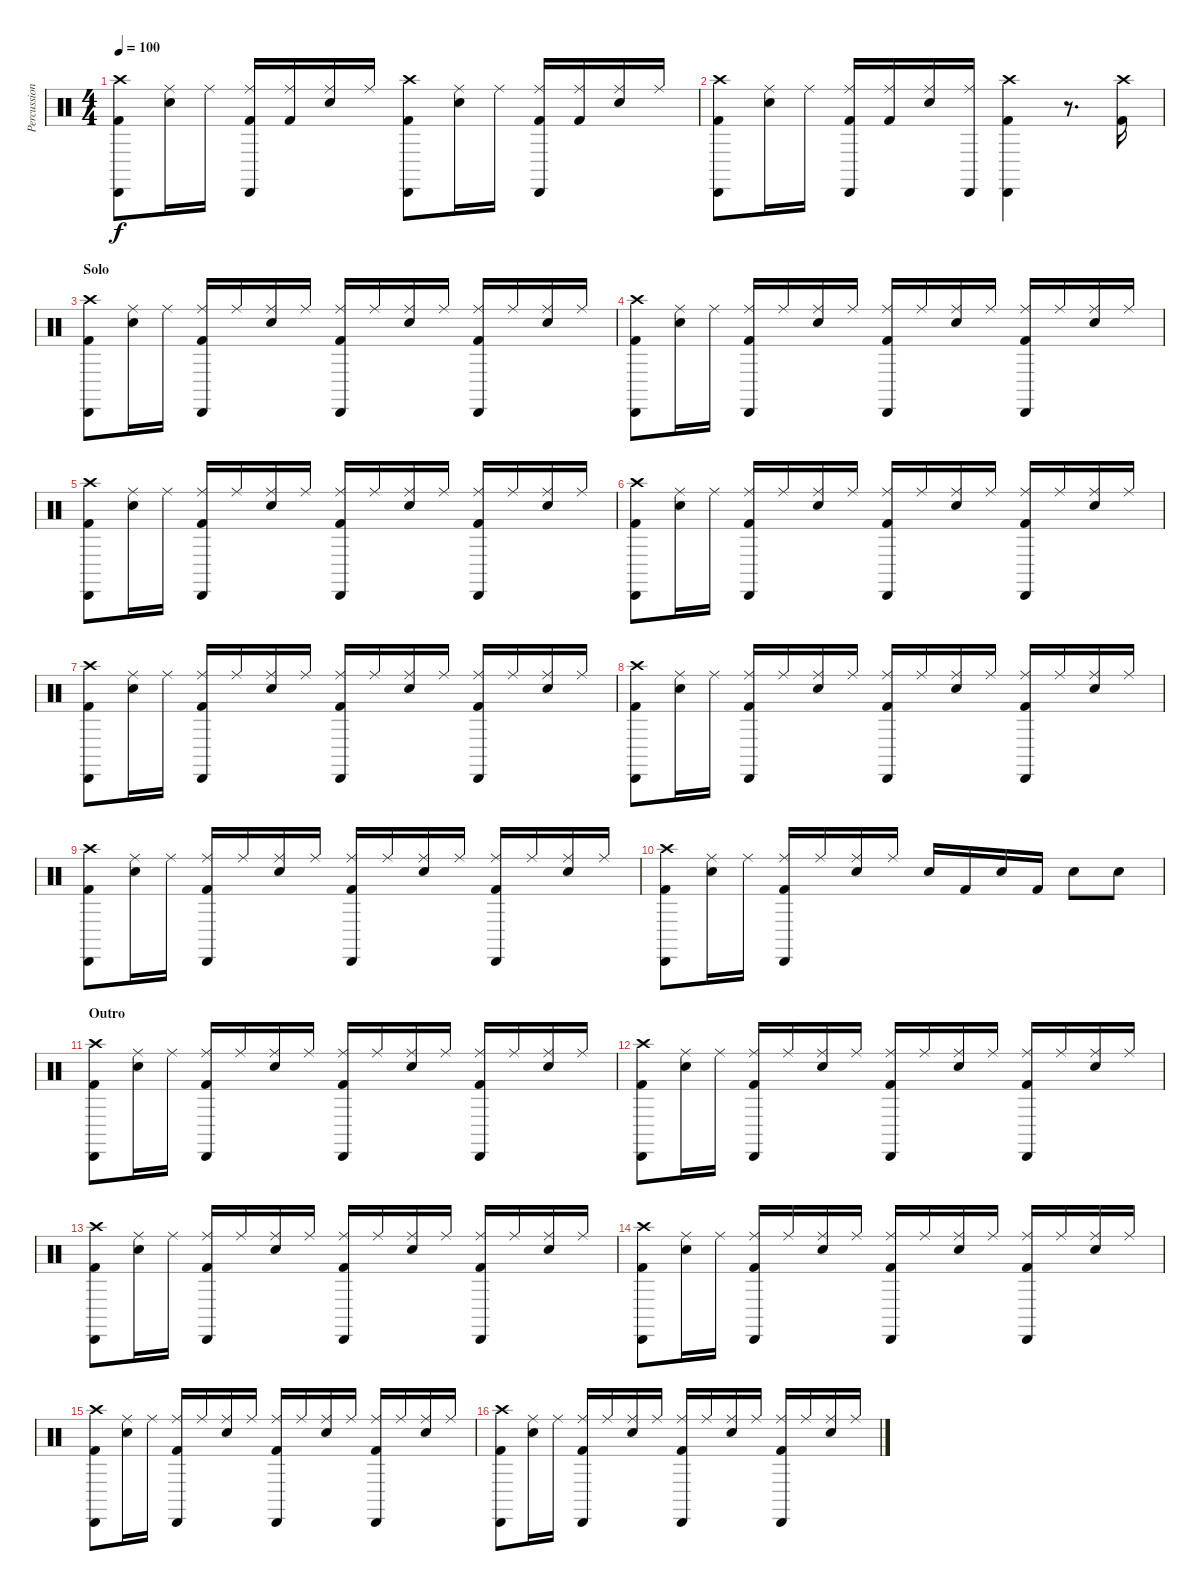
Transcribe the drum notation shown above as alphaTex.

\track ("Percussion" "Percussion") {instrument percussion}
\staff {score}
\articulation defaults
\ts (4 4)
\tempo 100
\clef neutral
\ks c
("Crash high (hit)" "Cabasa (hit)" "Kick (hit) 2").8{dy f} ("Ride (middle)" "Snare (hit) 2").16 "Ride (middle)".16 ("Ride (middle)" "Cabasa (hit)" "Kick (hit) 2").16 ("Ride (middle)" "Kick (hit) 2").16 ("Ride (middle)" "Snare (hit) 2").16 "Ride (middle)".16 ("Crash high (hit)" "Cabasa (hit)" "Kick (hit) 2").8 ("Ride (middle)" "Snare (hit) 2").16 "Ride (middle)".16 ("Ride (middle)" "Cabasa (hit)" "Kick (hit) 2").16 ("Ride (middle)" "Kick (hit) 2").16 ("Ride (middle)" "Snare (hit) 2").16 "Ride (middle)".16 |
("Crash high (hit)" "Cabasa (hit)" "Kick (hit) 2").8 ("Ride (middle)" "Snare (hit) 2").16 "Ride (middle)".16 ("Ride (middle)" "Cabasa (hit)" "Kick (hit) 2").16 ("Ride (middle)" "Kick (hit) 2").16 ("Ride (middle)" "Snare (hit) 2").16 ("Ride (middle)" "Cabasa (hit)").16 ("Crash high (hit)" "Cabasa (hit)" "Kick (hit) 2").4 r.8{d} ("Crash high (hit)" "Kick (hit) 2").16 |
\section ("" "Solo")
("Crash high (hit)" "Cabasa (hit)" "Kick (hit) 2").8 ("Ride (middle)" "Snare (hit) 2").16 "Ride (middle)".16 ("Ride (middle)" "Cabasa (hit)" "Kick (hit) 2").16 "Ride (middle)".16 ("Ride (middle)" "Snare (hit) 2").16 "Ride (middle)".16 ("Ride (middle)" "Cabasa (hit)" "Kick (hit) 2").16 "Ride (middle)".16 ("Ride (middle)" "Snare (hit) 2").16 "Ride (middle)".16 ("Ride (middle)" "Cabasa (hit)" "Kick (hit) 2").16 "Ride (middle)".16 ("Ride (middle)" "Snare (hit) 2").16 "Ride (middle)".16 |
("Crash high (hit)" "Cabasa (hit)" "Kick (hit) 2").8 ("Ride (middle)" "Snare (hit) 2").16 "Ride (middle)".16 ("Ride (middle)" "Cabasa (hit)" "Kick (hit) 2").16 "Ride (middle)".16 ("Ride (middle)" "Snare (hit) 2").16 "Ride (middle)".16 ("Ride (middle)" "Cabasa (hit)" "Kick (hit) 2").16 "Ride (middle)".16 ("Ride (middle)" "Snare (hit) 2").16 "Ride (middle)".16 ("Ride (middle)" "Cabasa (hit)" "Kick (hit) 2").16 "Ride (middle)".16 ("Ride (middle)" "Snare (hit) 2").16 "Ride (middle)".16 |
("Crash high (hit)" "Cabasa (hit)" "Kick (hit) 2").8 ("Ride (middle)" "Snare (hit) 2").16 "Ride (middle)".16 ("Ride (middle)" "Cabasa (hit)" "Kick (hit) 2").16 "Ride (middle)".16 ("Ride (middle)" "Snare (hit) 2").16 "Ride (middle)".16 ("Ride (middle)" "Cabasa (hit)" "Kick (hit) 2").16 "Ride (middle)".16 ("Ride (middle)" "Snare (hit) 2").16 "Ride (middle)".16 ("Ride (middle)" "Cabasa (hit)" "Kick (hit) 2").16 "Ride (middle)".16 ("Ride (middle)" "Snare (hit) 2").16 "Ride (middle)".16 |
("Crash high (hit)" "Cabasa (hit)" "Kick (hit) 2").8 ("Ride (middle)" "Snare (hit) 2").16 "Ride (middle)".16 ("Ride (middle)" "Cabasa (hit)" "Kick (hit) 2").16 "Ride (middle)".16 ("Ride (middle)" "Snare (hit) 2").16 "Ride (middle)".16 ("Ride (middle)" "Cabasa (hit)" "Kick (hit) 2").16 "Ride (middle)".16 ("Ride (middle)" "Snare (hit) 2").16 "Ride (middle)".16 ("Ride (middle)" "Cabasa (hit)" "Kick (hit) 2").16 "Ride (middle)".16 ("Ride (middle)" "Snare (hit) 2").16 "Ride (middle)".16 |
("Crash high (hit)" "Cabasa (hit)" "Kick (hit) 2").8 ("Ride (middle)" "Snare (hit) 2").16 "Ride (middle)".16 ("Ride (middle)" "Cabasa (hit)" "Kick (hit) 2").16 "Ride (middle)".16 ("Ride (middle)" "Snare (hit) 2").16 "Ride (middle)".16 ("Ride (middle)" "Cabasa (hit)" "Kick (hit) 2").16 "Ride (middle)".16 ("Ride (middle)" "Snare (hit) 2").16 "Ride (middle)".16 ("Ride (middle)" "Cabasa (hit)" "Kick (hit) 2").16 "Ride (middle)".16 ("Ride (middle)" "Snare (hit) 2").16 "Ride (middle)".16 |
("Crash high (hit)" "Cabasa (hit)" "Kick (hit) 2").8 ("Ride (middle)" "Snare (hit) 2").16 "Ride (middle)".16 ("Ride (middle)" "Cabasa (hit)" "Kick (hit) 2").16 "Ride (middle)".16 ("Ride (middle)" "Snare (hit) 2").16 "Ride (middle)".16 ("Ride (middle)" "Cabasa (hit)" "Kick (hit) 2").16 "Ride (middle)".16 ("Ride (middle)" "Snare (hit) 2").16 "Ride (middle)".16 ("Ride (middle)" "Cabasa (hit)" "Kick (hit) 2").16 "Ride (middle)".16 ("Ride (middle)" "Snare (hit) 2").16 "Ride (middle)".16 |
("Crash high (hit)" "Cabasa (hit)" "Kick (hit) 2").8 ("Ride (middle)" "Snare (hit) 2").16 "Ride (middle)".16 ("Ride (middle)" "Cabasa (hit)" "Kick (hit) 2").16 "Ride (middle)".16 ("Ride (middle)" "Snare (hit) 2").16 "Ride (middle)".16 ("Ride (middle)" "Cabasa (hit)" "Kick (hit) 2").16 "Ride (middle)".16 ("Ride (middle)" "Snare (hit) 2").16 "Ride (middle)".16 ("Ride (middle)" "Cabasa (hit)" "Kick (hit) 2").16 "Ride (middle)".16 ("Ride (middle)" "Snare (hit) 2").16 "Ride (middle)".16 |
("Crash high (hit)" "Cabasa (hit)" "Kick (hit) 2").8 ("Ride (middle)" "Snare (hit) 2").16 "Ride (middle)".16 ("Ride (middle)" "Cabasa (hit)" "Kick (hit) 2").16 "Ride (middle)".16 ("Ride (middle)" "Snare (hit) 2").16 "Ride (middle)".16 "Snare (hit) 2".16 "Kick (hit) 2".16 "Snare (hit) 2".16 "Kick (hit) 2".16 "Snare (hit) 2".8 "Snare (hit) 2".8 |
\section ("" "Outro")
("Crash high (hit)" "Cabasa (hit)" "Kick (hit) 2").8 ("Ride (middle)" "Snare (hit) 2").16 "Ride (middle)".16 ("Ride (middle)" "Cabasa (hit)" "Kick (hit) 2").16 "Ride (middle)".16 ("Ride (middle)" "Snare (hit) 2").16 "Ride (middle)".16 ("Ride (middle)" "Cabasa (hit)" "Kick (hit) 2").16 "Ride (middle)".16 ("Ride (middle)" "Snare (hit) 2").16 "Ride (middle)".16 ("Ride (middle)" "Cabasa (hit)" "Kick (hit) 2").16 "Ride (middle)".16 ("Ride (middle)" "Snare (hit) 2").16 "Ride (middle)".16 |
("Crash high (hit)" "Cabasa (hit)" "Kick (hit) 2").8 ("Ride (middle)" "Snare (hit) 2").16 "Ride (middle)".16 ("Ride (middle)" "Cabasa (hit)" "Kick (hit) 2").16 "Ride (middle)".16 ("Ride (middle)" "Snare (hit) 2").16 "Ride (middle)".16 ("Ride (middle)" "Cabasa (hit)" "Kick (hit) 2").16 "Ride (middle)".16 ("Ride (middle)" "Snare (hit) 2").16 "Ride (middle)".16 ("Ride (middle)" "Cabasa (hit)" "Kick (hit) 2").16 "Ride (middle)".16 ("Ride (middle)" "Snare (hit) 2").16 "Ride (middle)".16 |
("Crash high (hit)" "Cabasa (hit)" "Kick (hit) 2").8 ("Ride (middle)" "Snare (hit) 2").16 "Ride (middle)".16 ("Ride (middle)" "Cabasa (hit)" "Kick (hit) 2").16 "Ride (middle)".16 ("Ride (middle)" "Snare (hit) 2").16 "Ride (middle)".16 ("Ride (middle)" "Cabasa (hit)" "Kick (hit) 2").16 "Ride (middle)".16 ("Ride (middle)" "Snare (hit) 2").16 "Ride (middle)".16 ("Ride (middle)" "Cabasa (hit)" "Kick (hit) 2").16 "Ride (middle)".16 ("Ride (middle)" "Snare (hit) 2").16 "Ride (middle)".16 |
("Crash high (hit)" "Cabasa (hit)" "Kick (hit) 2").8 ("Ride (middle)" "Snare (hit) 2").16 "Ride (middle)".16 ("Ride (middle)" "Cabasa (hit)" "Kick (hit) 2").16 "Ride (middle)".16 ("Ride (middle)" "Snare (hit) 2").16 "Ride (middle)".16 ("Ride (middle)" "Cabasa (hit)" "Kick (hit) 2").16 "Ride (middle)".16 ("Ride (middle)" "Snare (hit) 2").16 "Ride (middle)".16 ("Ride (middle)" "Cabasa (hit)" "Kick (hit) 2").16 "Ride (middle)".16 ("Ride (middle)" "Snare (hit) 2").16 "Ride (middle)".16 |
("Crash high (hit)" "Cabasa (hit)" "Kick (hit) 2").8 ("Ride (middle)" "Snare (hit) 2").16 "Ride (middle)".16 ("Ride (middle)" "Cabasa (hit)" "Kick (hit) 2").16 "Ride (middle)".16 ("Ride (middle)" "Snare (hit) 2").16 "Ride (middle)".16 ("Ride (middle)" "Cabasa (hit)" "Kick (hit) 2").16 "Ride (middle)".16 ("Ride (middle)" "Snare (hit) 2").16 "Ride (middle)".16 ("Ride (middle)" "Cabasa (hit)" "Kick (hit) 2").16 "Ride (middle)".16 ("Ride (middle)" "Snare (hit) 2").16 "Ride (middle)".16 |
("Crash high (hit)" "Cabasa (hit)" "Kick (hit) 2").8 ("Ride (middle)" "Snare (hit) 2").16 "Ride (middle)".16 ("Ride (middle)" "Cabasa (hit)" "Kick (hit) 2").16 "Ride (middle)".16 ("Ride (middle)" "Snare (hit) 2").16 "Ride (middle)".16 ("Ride (middle)" "Cabasa (hit)" "Kick (hit) 2").16 "Ride (middle)".16 ("Ride (middle)" "Snare (hit) 2").16 "Ride (middle)".16 ("Ride (middle)" "Cabasa (hit)" "Kick (hit) 2").16 "Ride (middle)".16 ("Ride (middle)" "Snare (hit) 2").16 "Ride (middle)".16
